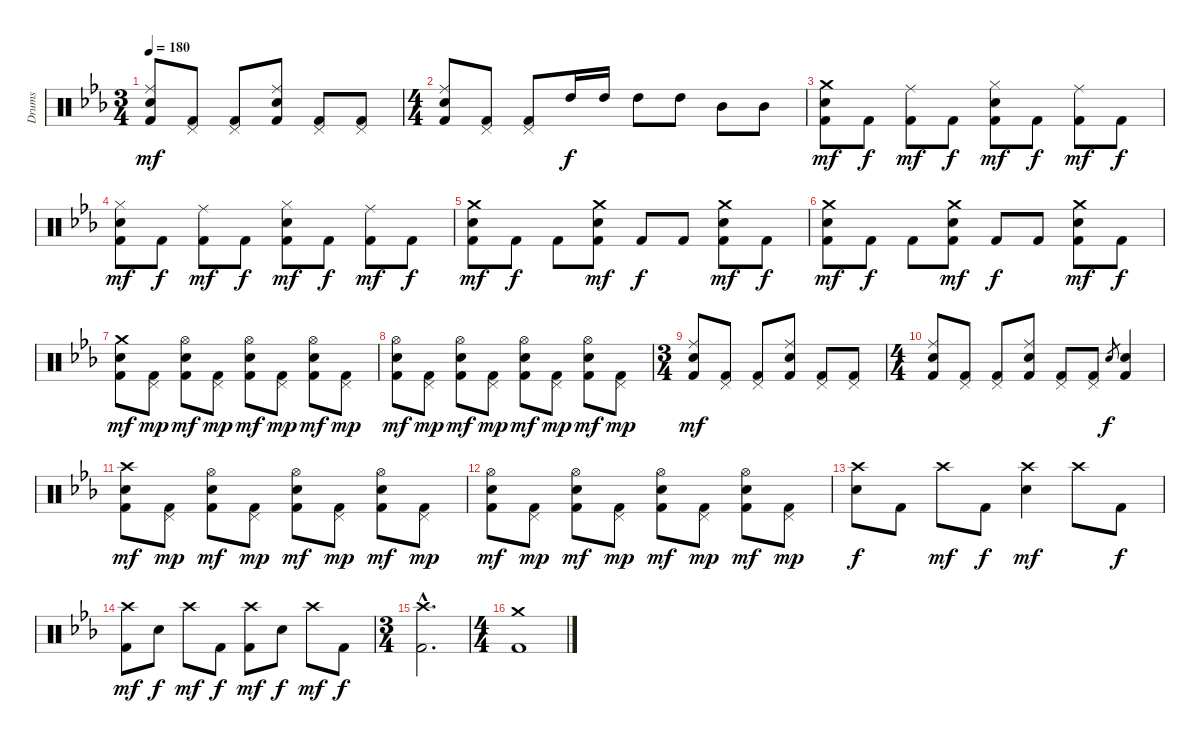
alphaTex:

\track ("Drums" "Drums") {instrument percussion}
\staff {score}
\articulation defaults
\ts (3 4)
\tempo 180
\clef neutral
\ks eb
("Ride (middle)" "Electric Snare (hit)" "Kick (hit) 2").8{dy mf} ("Pedal Hi-Hat (hit)" "Kick (hit) 2").8 ("Pedal Hi-Hat (hit)" "Kick (hit) 2").8 ("Ride (middle)" "Electric Snare (hit)" "Kick (hit) 2").8 ("Pedal Hi-Hat (hit)" "Kick (hit) 2").8 ("Pedal Hi-Hat (hit)" "Kick (hit) 2").8 |
\ts (4 4)
("Ride (middle)" "Electric Snare (hit)" "Kick (hit) 2").8 ("Pedal Hi-Hat (hit)" "Kick (hit) 2").8 ("Pedal Hi-Hat (hit)" "Kick (hit) 2").8 "High Tom (hit)".16{dy f} "High Tom (hit)".16 "High Tom (hit)".8 "High Tom (hit)".8 "Mid Tom (hit)".8 "Mid Tom (hit)".8 |
("Crash medium (hit)" "Electric Snare (hit)" "Kick (hit) 2").8{dy mf} "Kick (hit) 2".8{dy f} ("Ride (middle)" "Kick (hit) 2").8{dy mf} "Kick (hit) 2".8{dy f} ("Hi-Hat (closed)" "Electric Snare (hit)" "Kick (hit) 2").8{dy mf} "Kick (hit) 2".8{dy f} ("Ride (middle)" "Kick (hit) 2").8{dy mf} "Kick (hit) 2".8{dy f} |
("Hi-Hat (closed)" "Electric Snare (hit)" "Kick (hit) 2").8{dy mf} "Kick (hit) 2".8{dy f} ("Ride (middle)" "Kick (hit) 2").8{dy mf} "Kick (hit) 2".8{dy f} ("Hi-Hat (closed)" "Electric Snare (hit)" "Kick (hit) 2").8{dy mf} "Kick (hit) 2".8{dy f} ("Ride (middle)" "Kick (hit) 2").8{dy mf} "Kick (hit) 2".8{dy f} |
("Crash medium (hit)" "Electric Snare (hit)" "Kick (hit) 2").8{dy mf} "Kick (hit) 2".8{dy f} "Kick (hit) 2".8 ("Crash medium (hit)" "Electric Snare (hit)" "Kick (hit) 2").8{dy mf} "Kick (hit) 2".8{dy f} "Kick (hit) 2".8 ("Crash medium (hit)" "Electric Snare (hit)" "Kick (hit) 2").8{dy mf} "Kick (hit) 2".8{dy f} |
("Crash medium (hit)" "Electric Snare (hit)" "Kick (hit) 2").8{dy mf} "Kick (hit) 2".8{dy f} "Kick (hit) 2".8 ("Crash medium (hit)" "Electric Snare (hit)" "Kick (hit) 2").8{dy mf} "Kick (hit) 2".8{dy f} "Kick (hit) 2".8 ("Crash medium (hit)" "Electric Snare (hit)" "Kick (hit) 2").8{dy mf} "Kick (hit) 2".8{dy f} |
("Crash medium (hit)" "Electric Snare (hit)" "Kick (hit) 2").8{dy mf} ("Pedal Hi-Hat (hit)" "Kick (hit) 2").8{dy mp} ("Hi-Hat (open)" "Electric Snare (hit)" "Kick (hit) 2").8{dy mf} ("Pedal Hi-Hat (hit)" "Kick (hit) 2").8{dy mp} ("Hi-Hat (open)" "Electric Snare (hit)" "Kick (hit) 2").8{dy mf} ("Pedal Hi-Hat (hit)" "Kick (hit) 2").8{dy mp} ("Hi-Hat (open)" "Electric Snare (hit)" "Kick (hit) 2").8{dy mf} ("Pedal Hi-Hat (hit)" "Kick (hit) 2").8{dy mp} |
("Hi-Hat (open)" "Electric Snare (hit)" "Kick (hit) 2").8{dy mf} ("Pedal Hi-Hat (hit)" "Kick (hit) 2").8{dy mp} ("Hi-Hat (open)" "Electric Snare (hit)" "Kick (hit) 2").8{dy mf} ("Pedal Hi-Hat (hit)" "Kick (hit) 2").8{dy mp} ("Hi-Hat (open)" "Electric Snare (hit)" "Kick (hit) 2").8{dy mf} ("Pedal Hi-Hat (hit)" "Kick (hit) 2").8{dy mp} ("Hi-Hat (open)" "Electric Snare (hit)" "Kick (hit) 2").8{dy mf} ("Pedal Hi-Hat (hit)" "Kick (hit) 2").8{dy mp} |
\ts (3 4)
("Ride (middle)" "Electric Snare (hit)" "Kick (hit) 2").8{dy mf} ("Pedal Hi-Hat (hit)" "Kick (hit) 2").8 ("Pedal Hi-Hat (hit)" "Kick (hit) 2").8 ("Ride (middle)" "Electric Snare (hit)" "Kick (hit) 2").8 ("Pedal Hi-Hat (hit)" "Kick (hit) 2").8 ("Pedal Hi-Hat (hit)" "Kick (hit) 2").8 |
\ts (4 4)
("Ride (middle)" "Electric Snare (hit)" "Kick (hit) 2").8 ("Pedal Hi-Hat (hit)" "Kick (hit) 2").8 ("Pedal Hi-Hat (hit)" "Kick (hit) 2").8 ("Ride (middle)" "Electric Snare (hit)" "Kick (hit) 2").8 ("Pedal Hi-Hat (hit)" "Kick (hit) 2").8 ("Pedal Hi-Hat (hit)" "Kick (hit) 2").8 "Electric Snare (hit)".8{gr dy f} ("Electric Snare (hit)" "Kick (hit) 2").4 |
("Crash high (hit)" "Electric Snare (hit)" "Kick (hit) 2").8{dy mf} ("Pedal Hi-Hat (hit)" "Kick (hit) 2").8{dy mp} ("Hi-Hat (open)" "Electric Snare (hit)" "Kick (hit) 2").8{dy mf} ("Pedal Hi-Hat (hit)" "Kick (hit) 2").8{dy mp} ("Hi-Hat (open)" "Electric Snare (hit)" "Kick (hit) 2").8{dy mf} ("Pedal Hi-Hat (hit)" "Kick (hit) 2").8{dy mp} ("Hi-Hat (open)" "Electric Snare (hit)" "Kick (hit) 2").8{dy mf} ("Pedal Hi-Hat (hit)" "Kick (hit) 2").8{dy mp} |
("Hi-Hat (open)" "Electric Snare (hit)" "Kick (hit) 2").8{dy mf} ("Pedal Hi-Hat (hit)" "Kick (hit) 2").8{dy mp} ("Hi-Hat (open)" "Electric Snare (hit)" "Kick (hit) 2").8{dy mf} ("Pedal Hi-Hat (hit)" "Kick (hit) 2").8{dy mp} ("Hi-Hat (open)" "Electric Snare (hit)" "Kick (hit) 2").8{dy mf} ("Pedal Hi-Hat (hit)" "Kick (hit) 2").8{dy mp} ("Hi-Hat (open)" "Electric Snare (hit)" "Kick (hit) 2").8{dy mf} ("Pedal Hi-Hat (hit)" "Kick (hit) 2").8{dy mp} |
("Crash high (hit)" "Electric Snare (hit)").8{dy f} "Kick (hit) 2".8 "Crash high (hit)".8{dy mf} "Kick (hit) 2".8{dy f} ("Crash high (hit)" "Electric Snare (hit)").4{dy mf} "Crash high (hit)".8 "Kick (hit) 2".8{dy f} |
("Crash high (hit)" "Kick (hit) 2").8{dy mf} "Electric Snare (hit)".8{dy f} "Crash high (hit)".8{dy mf} "Kick (hit) 2".8{dy f} ("Crash high (hit)" "Kick (hit) 2").8{dy mf} "Electric Snare (hit)".8{dy f} "Crash high (hit)".8{dy mf} "Kick (hit) 2".8{dy f} |
\ts (3 4)
("Crash high (hit)"{hac} "Kick (hit) 2"{hac}).2{d} |
\ts (4 4)
("Crash medium (hit)" "Kick (hit) 2").1
